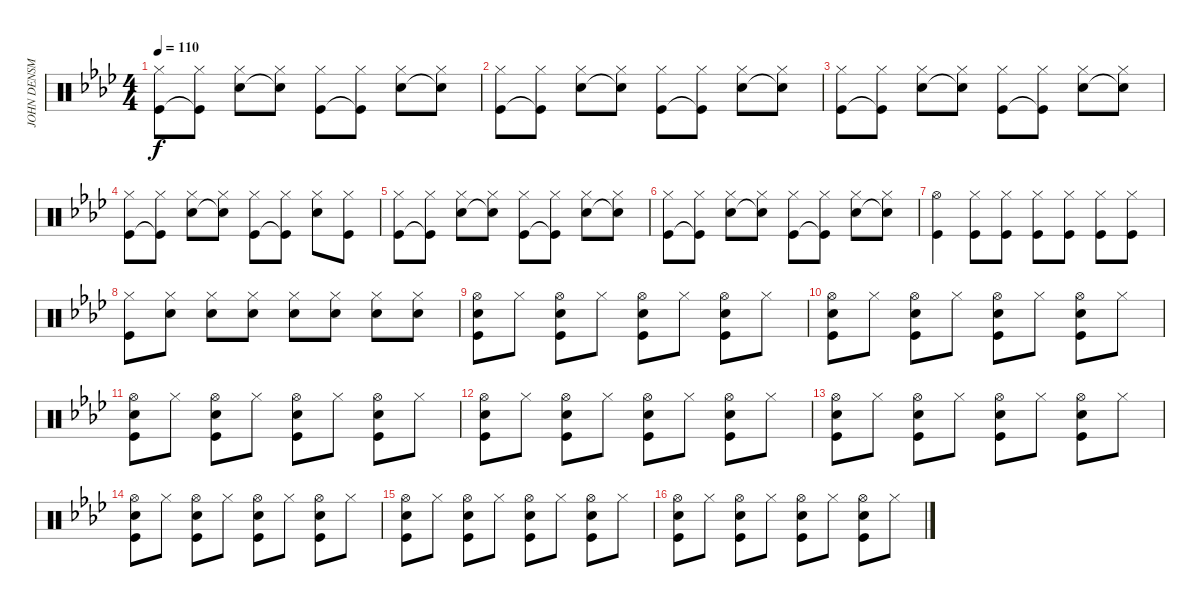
\track ("JOHN DENSMORE" "JOHN DENSM") {instrument percussion}
\staff {score}
\articulation defaults
\ts (4 4)
\tempo 110
\clef neutral
\ks ab
("Kick (hit)" "Hi-Hat (closed)").8{dy f} ("Kick (hit)"{t} "Hi-Hat (closed)").8 ("Snare (hit) 2" "Hi-Hat (closed)").8 ("Snare (hit) 2"{t} "Hi-Hat (closed)").8 ("Kick (hit)" "Hi-Hat (closed)").8 ("Kick (hit)"{t} "Hi-Hat (closed)").8 ("Snare (hit) 2" "Hi-Hat (closed)").8 ("Snare (hit) 2"{t} "Hi-Hat (closed)").8 |
("Kick (hit)" "Hi-Hat (closed)").8 ("Kick (hit)"{t} "Hi-Hat (closed)").8 ("Snare (hit) 2" "Hi-Hat (closed)").8 ("Snare (hit) 2"{t} "Hi-Hat (closed)").8 ("Kick (hit)" "Hi-Hat (closed)").8 ("Kick (hit)"{t} "Hi-Hat (closed)").8 ("Snare (hit) 2" "Hi-Hat (closed)").8 ("Snare (hit) 2"{t} "Hi-Hat (closed)").8 |
("Kick (hit)" "Hi-Hat (closed)").8 ("Kick (hit)"{t} "Hi-Hat (closed)").8 ("Snare (hit) 2" "Hi-Hat (closed)").8 ("Snare (hit) 2"{t} "Hi-Hat (closed)").8 ("Kick (hit)" "Hi-Hat (closed)").8 ("Kick (hit)"{t} "Hi-Hat (closed)").8 ("Snare (hit) 2" "Hi-Hat (closed)").8 ("Snare (hit) 2"{t} "Hi-Hat (closed)").8 |
("Kick (hit)" "Hi-Hat (closed)").8 ("Kick (hit)"{t} "Hi-Hat (closed)").8 ("Snare (hit) 2" "Hi-Hat (closed)").8 ("Snare (hit) 2"{t} "Hi-Hat (closed)").8 ("Kick (hit)" "Hi-Hat (closed)").8 ("Kick (hit)"{t} "Hi-Hat (closed)").8 ("Snare (hit) 2" "Hi-Hat (closed)").8 ("Hi-Hat (closed)" "Kick (hit)").8 |
("Kick (hit)" "Hi-Hat (closed)").8 ("Kick (hit)"{t} "Hi-Hat (closed)").8 ("Snare (hit) 2" "Hi-Hat (closed)").8 ("Snare (hit) 2"{t} "Hi-Hat (closed)").8 ("Kick (hit)" "Hi-Hat (closed)").8 ("Kick (hit)"{t} "Hi-Hat (closed)").8 ("Snare (hit) 2" "Hi-Hat (closed)").8 ("Snare (hit) 2"{t} "Hi-Hat (closed)").8 |
("Kick (hit)" "Hi-Hat (closed)").8 ("Kick (hit)"{t} "Hi-Hat (closed)").8 ("Snare (hit) 2" "Hi-Hat (closed)").8 ("Snare (hit) 2"{t} "Hi-Hat (closed)").8 ("Kick (hit)" "Hi-Hat (closed)").8 ("Kick (hit)"{t} "Hi-Hat (closed)").8 ("Snare (hit) 2" "Hi-Hat (closed)").8 ("Snare (hit) 2"{t} "Hi-Hat (closed)").8 |
("Hi-Hat (open)" "Kick (hit)").4 ("Kick (hit)" "Hi-Hat (closed)").8 ("Kick (hit)" "Hi-Hat (closed)").8 ("Kick (hit)" "Hi-Hat (closed)").8 ("Kick (hit)" "Hi-Hat (closed)").8 ("Kick (hit)" "Hi-Hat (closed)").8 ("Kick (hit)" "Hi-Hat (closed)").8 |
("Kick (hit)" "Hi-Hat (closed)").8 ("Hi-Hat (closed)" "Snare (hit) 2").8 ("Hi-Hat (closed)" "Snare (hit) 2").8 ("Hi-Hat (closed)" "Snare (hit) 2").8 ("Hi-Hat (closed)" "Snare (hit) 2").8 ("Hi-Hat (closed)" "Snare (hit) 2").8 ("Hi-Hat (closed)" "Snare (hit) 2").8 ("Hi-Hat (closed)" "Snare (hit) 2").8 |
("Hi-Hat (open)" "Kick (hit)" "Snare (hit) 2").8 "Hi-Hat (closed)".8 ("Hi-Hat (open)" "Kick (hit)" "Snare (hit) 2").8 "Hi-Hat (closed)".8 ("Hi-Hat (open)" "Kick (hit)" "Snare (hit) 2").8 "Hi-Hat (closed)".8 ("Hi-Hat (open)" "Kick (hit)" "Snare (hit) 2").8 "Hi-Hat (closed)".8 |
("Hi-Hat (open)" "Kick (hit)" "Snare (hit) 2").8 "Hi-Hat (closed)".8 ("Hi-Hat (open)" "Kick (hit)" "Snare (hit) 2").8 "Hi-Hat (closed)".8 ("Hi-Hat (open)" "Kick (hit)" "Snare (hit) 2").8 "Hi-Hat (closed)".8 ("Hi-Hat (open)" "Kick (hit)" "Snare (hit) 2").8 "Hi-Hat (closed)".8 |
("Hi-Hat (open)" "Kick (hit)" "Snare (hit) 2").8 "Hi-Hat (closed)".8 ("Hi-Hat (open)" "Kick (hit)" "Snare (hit) 2").8 "Hi-Hat (closed)".8 ("Hi-Hat (open)" "Kick (hit)" "Snare (hit) 2").8 "Hi-Hat (closed)".8 ("Hi-Hat (open)" "Kick (hit)" "Snare (hit) 2").8 "Hi-Hat (closed)".8 |
("Hi-Hat (open)" "Kick (hit)" "Snare (hit) 2").8 "Hi-Hat (closed)".8 ("Hi-Hat (open)" "Kick (hit)" "Snare (hit) 2").8 "Hi-Hat (closed)".8 ("Hi-Hat (open)" "Kick (hit)" "Snare (hit) 2").8 "Hi-Hat (closed)".8 ("Hi-Hat (open)" "Kick (hit)" "Snare (hit) 2").8 "Hi-Hat (closed)".8 |
("Hi-Hat (open)" "Kick (hit)" "Snare (hit) 2").8 "Hi-Hat (closed)".8 ("Hi-Hat (open)" "Kick (hit)" "Snare (hit) 2").8 "Hi-Hat (closed)".8 ("Hi-Hat (open)" "Kick (hit)" "Snare (hit) 2").8 "Hi-Hat (closed)".8 ("Hi-Hat (open)" "Kick (hit)" "Snare (hit) 2").8 "Hi-Hat (closed)".8 |
("Hi-Hat (open)" "Kick (hit)" "Snare (hit) 2").8 "Hi-Hat (closed)".8 ("Hi-Hat (open)" "Kick (hit)" "Snare (hit) 2").8 "Hi-Hat (closed)".8 ("Hi-Hat (open)" "Kick (hit)" "Snare (hit) 2").8 "Hi-Hat (closed)".8 ("Hi-Hat (open)" "Kick (hit)" "Snare (hit) 2").8 "Hi-Hat (closed)".8 |
("Hi-Hat (open)" "Kick (hit)" "Snare (hit) 2").8 "Hi-Hat (closed)".8 ("Hi-Hat (open)" "Kick (hit)" "Snare (hit) 2").8 "Hi-Hat (closed)".8 ("Hi-Hat (open)" "Kick (hit)" "Snare (hit) 2").8 "Hi-Hat (closed)".8 ("Hi-Hat (open)" "Kick (hit)" "Snare (hit) 2").8 "Hi-Hat (closed)".8 |
("Hi-Hat (open)" "Kick (hit)" "Snare (hit) 2").8 "Hi-Hat (closed)".8 ("Hi-Hat (open)" "Kick (hit)" "Snare (hit) 2").8 "Hi-Hat (closed)".8 ("Hi-Hat (open)" "Kick (hit)" "Snare (hit) 2").8 "Hi-Hat (closed)".8 ("Hi-Hat (open)" "Kick (hit)" "Snare (hit) 2").8 "Hi-Hat (closed)".8
